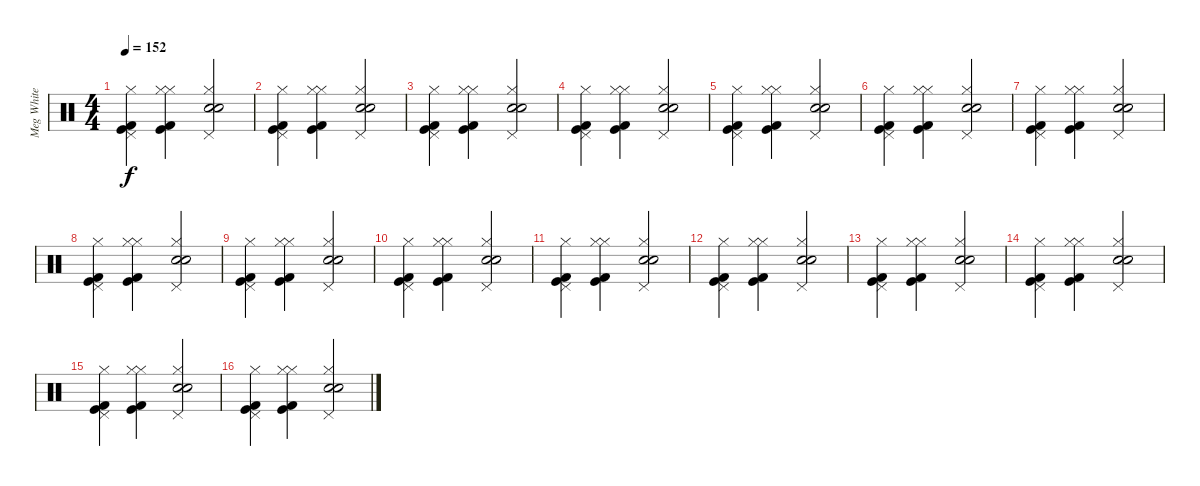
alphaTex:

\track ("Meg White" "Meg White") {instrument percussion}
\staff {score}
\articulation defaults
\ts (4 4)
\tempo 152
\clef neutral
\ks c
("Kick (hit) 2" "Kick (hit)" "Pedal Hi-Hat (hit)" "Hi-Hat (closed)").4{dy f} ("Kick (hit) 2" "Kick (hit)" "Hi-Hat (closed)" "Hi-Hat (closed)").4 ("Pedal Hi-Hat (hit)" "Electric Snare (hit)" "Snare (hit) 2" "Hi-Hat (closed)").2 |
("Kick (hit) 2" "Kick (hit)" "Pedal Hi-Hat (hit)" "Hi-Hat (closed)").4 ("Kick (hit) 2" "Kick (hit)" "Hi-Hat (closed)" "Hi-Hat (closed)").4 ("Pedal Hi-Hat (hit)" "Electric Snare (hit)" "Snare (hit) 2" "Hi-Hat (closed)").2 |
("Kick (hit) 2" "Kick (hit)" "Pedal Hi-Hat (hit)" "Hi-Hat (closed)").4 ("Kick (hit) 2" "Kick (hit)" "Hi-Hat (closed)" "Hi-Hat (closed)").4 ("Pedal Hi-Hat (hit)" "Electric Snare (hit)" "Snare (hit) 2" "Hi-Hat (closed)").2 |
("Kick (hit) 2" "Kick (hit)" "Pedal Hi-Hat (hit)" "Hi-Hat (closed)").4 ("Kick (hit) 2" "Kick (hit)" "Hi-Hat (closed)" "Hi-Hat (closed)").4 ("Pedal Hi-Hat (hit)" "Electric Snare (hit)" "Snare (hit) 2" "Hi-Hat (closed)").2 |
("Kick (hit) 2" "Kick (hit)" "Pedal Hi-Hat (hit)" "Hi-Hat (closed)").4 ("Kick (hit) 2" "Kick (hit)" "Hi-Hat (closed)" "Hi-Hat (closed)").4 ("Pedal Hi-Hat (hit)" "Electric Snare (hit)" "Snare (hit) 2" "Hi-Hat (closed)").2 |
("Kick (hit) 2" "Kick (hit)" "Pedal Hi-Hat (hit)" "Hi-Hat (closed)").4 ("Kick (hit) 2" "Kick (hit)" "Hi-Hat (closed)" "Hi-Hat (closed)").4 ("Pedal Hi-Hat (hit)" "Electric Snare (hit)" "Snare (hit) 2" "Hi-Hat (closed)").2 |
("Kick (hit) 2" "Kick (hit)" "Pedal Hi-Hat (hit)" "Hi-Hat (closed)").4 ("Kick (hit) 2" "Kick (hit)" "Hi-Hat (closed)" "Hi-Hat (closed)").4 ("Pedal Hi-Hat (hit)" "Electric Snare (hit)" "Snare (hit) 2" "Hi-Hat (closed)").2 |
("Kick (hit) 2" "Kick (hit)" "Pedal Hi-Hat (hit)" "Hi-Hat (closed)").4 ("Kick (hit) 2" "Kick (hit)" "Hi-Hat (closed)" "Hi-Hat (closed)").4 ("Pedal Hi-Hat (hit)" "Electric Snare (hit)" "Snare (hit) 2" "Hi-Hat (closed)").2 |
("Kick (hit) 2" "Kick (hit)" "Pedal Hi-Hat (hit)" "Hi-Hat (closed)").4 ("Kick (hit) 2" "Kick (hit)" "Hi-Hat (closed)" "Hi-Hat (closed)").4 ("Pedal Hi-Hat (hit)" "Electric Snare (hit)" "Snare (hit) 2" "Hi-Hat (closed)").2 |
("Kick (hit) 2" "Kick (hit)" "Pedal Hi-Hat (hit)" "Hi-Hat (closed)").4 ("Kick (hit) 2" "Kick (hit)" "Hi-Hat (closed)" "Hi-Hat (closed)").4 ("Pedal Hi-Hat (hit)" "Electric Snare (hit)" "Snare (hit) 2" "Hi-Hat (closed)").2 |
("Kick (hit) 2" "Kick (hit)" "Pedal Hi-Hat (hit)" "Hi-Hat (closed)").4 ("Kick (hit) 2" "Kick (hit)" "Hi-Hat (closed)" "Hi-Hat (closed)").4 ("Pedal Hi-Hat (hit)" "Electric Snare (hit)" "Snare (hit) 2" "Hi-Hat (closed)").2 |
("Kick (hit) 2" "Kick (hit)" "Pedal Hi-Hat (hit)" "Hi-Hat (closed)").4 ("Kick (hit) 2" "Kick (hit)" "Hi-Hat (closed)" "Hi-Hat (closed)").4 ("Pedal Hi-Hat (hit)" "Electric Snare (hit)" "Snare (hit) 2" "Hi-Hat (closed)").2 |
("Kick (hit) 2" "Kick (hit)" "Pedal Hi-Hat (hit)" "Hi-Hat (closed)").4 ("Kick (hit) 2" "Kick (hit)" "Hi-Hat (closed)" "Hi-Hat (closed)").4 ("Pedal Hi-Hat (hit)" "Electric Snare (hit)" "Snare (hit) 2" "Hi-Hat (closed)").2 |
("Kick (hit) 2" "Kick (hit)" "Pedal Hi-Hat (hit)" "Hi-Hat (closed)").4 ("Kick (hit) 2" "Kick (hit)" "Hi-Hat (closed)" "Hi-Hat (closed)").4 ("Pedal Hi-Hat (hit)" "Electric Snare (hit)" "Snare (hit) 2" "Hi-Hat (closed)").2 |
("Kick (hit) 2" "Kick (hit)" "Pedal Hi-Hat (hit)" "Hi-Hat (closed)").4 ("Kick (hit) 2" "Kick (hit)" "Hi-Hat (closed)" "Hi-Hat (closed)").4 ("Pedal Hi-Hat (hit)" "Electric Snare (hit)" "Snare (hit) 2" "Hi-Hat (closed)").2 |
("Kick (hit) 2" "Kick (hit)" "Pedal Hi-Hat (hit)" "Hi-Hat (closed)").4 ("Kick (hit) 2" "Kick (hit)" "Hi-Hat (closed)" "Hi-Hat (closed)").4 ("Pedal Hi-Hat (hit)" "Electric Snare (hit)" "Snare (hit) 2" "Hi-Hat (closed)").2
